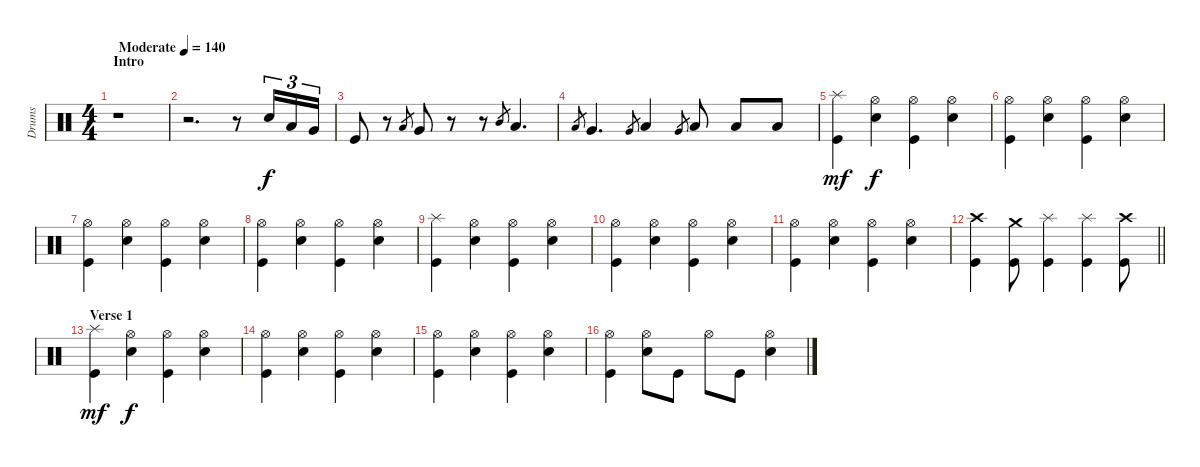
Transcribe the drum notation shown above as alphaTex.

\track ("Drums" "Drums") {instrument percussion}
\staff {score}
\articulation defaults
\ts (4 4)
\section ("" "Intro")
\tempo (140 "Moderate")
\clef neutral
\ks c
r.1{dy f} |
r.2{d} r.8 "Electric Snare (hit)".16{tu (3 2)} "Low Tom (hit)".16{tu (3 2)} "Very Low Tom (hit)".16{tu (3 2)} |
"Kick (hit)".8 r.8 "Low Tom (hit)".8{gr} "Very Low Tom (hit)".8 r.8 r.8 "Mid Tom (hit)".8{gr} "Low Tom (hit)".4{d} |
"Low Tom (hit)".8{gr} "Very Low Tom (hit)".4{d} "Very Low Tom (hit)".8{gr} "Low Floor Tom (hit)".4 "Very Low Tom (hit)".8{gr} "Low Floor Tom (hit)".8 "Low Floor Tom (hit)".8 "Low Floor Tom (hit)".8 |
("Splash (hit)" "Kick (hit)").4{dy mf} ("Hi-Hat (open)" "Electric Snare (hit)").4{dy f} ("Hi-Hat (open)" "Kick (hit)").4 ("Hi-Hat (open)" "Electric Snare (hit)").4 |
("Hi-Hat (open)" "Kick (hit)").4 ("Hi-Hat (open)" "Electric Snare (hit)").4 ("Hi-Hat (open)" "Kick (hit)").4 ("Hi-Hat (open)" "Electric Snare (hit)").4 |
("Hi-Hat (open)" "Kick (hit)").4 ("Hi-Hat (open)" "Electric Snare (hit)").4 ("Hi-Hat (open)" "Kick (hit)").4 ("Hi-Hat (open)" "Electric Snare (hit)").4 |
("Hi-Hat (open)" "Kick (hit)").4 ("Hi-Hat (open)" "Electric Snare (hit)").4 ("Hi-Hat (open)" "Kick (hit)").4 ("Hi-Hat (open)" "Electric Snare (hit)").4 |
("Splash (hit)" "Kick (hit)").4 ("Hi-Hat (open)" "Electric Snare (hit)").4 ("Hi-Hat (open)" "Kick (hit)").4 ("Hi-Hat (open)" "Electric Snare (hit)").4 |
("Hi-Hat (open)" "Kick (hit)").4 ("Hi-Hat (open)" "Electric Snare (hit)").4 ("Hi-Hat (open)" "Kick (hit)").4 ("Hi-Hat (open)" "Electric Snare (hit)").4 |
("Hi-Hat (open)" "Kick (hit)").4 ("Hi-Hat (open)" "Electric Snare (hit)").4 ("Hi-Hat (open)" "Kick (hit)").4 ("Hi-Hat (open)" "Electric Snare (hit)").4 |
\barLineRight lightlight
("Crash high (hit)" "Kick (hit)").4 ("Crash medium (hit)" "Kick (hit)").8 ("Splash (hit)" "Kick (hit)").4 ("Splash (hit)" "Kick (hit)").4 ("Crash high (hit)" "Kick (hit)").8 |
\section ("" "Verse 1")
("Splash (hit)" "Kick (hit)").4{dy mf} ("Hi-Hat (open)" "Electric Snare (hit)").4{dy f} ("Hi-Hat (open)" "Kick (hit)").4 ("Hi-Hat (open)" "Electric Snare (hit)").4 |
("Hi-Hat (open)" "Kick (hit)").4 ("Hi-Hat (open)" "Electric Snare (hit)").4 ("Hi-Hat (open)" "Kick (hit)").4 ("Hi-Hat (open)" "Electric Snare (hit)").4 |
("Hi-Hat (open)" "Kick (hit)").4 ("Hi-Hat (open)" "Electric Snare (hit)").4 ("Hi-Hat (open)" "Kick (hit)").4 ("Hi-Hat (open)" "Electric Snare (hit)").4 |
("Hi-Hat (open)" "Kick (hit)").4 ("Hi-Hat (open)" "Electric Snare (hit)").8 "Kick (hit)".8 "Hi-Hat (open)".8 "Kick (hit)".8 ("Hi-Hat (open)" "Electric Snare (hit)").4
